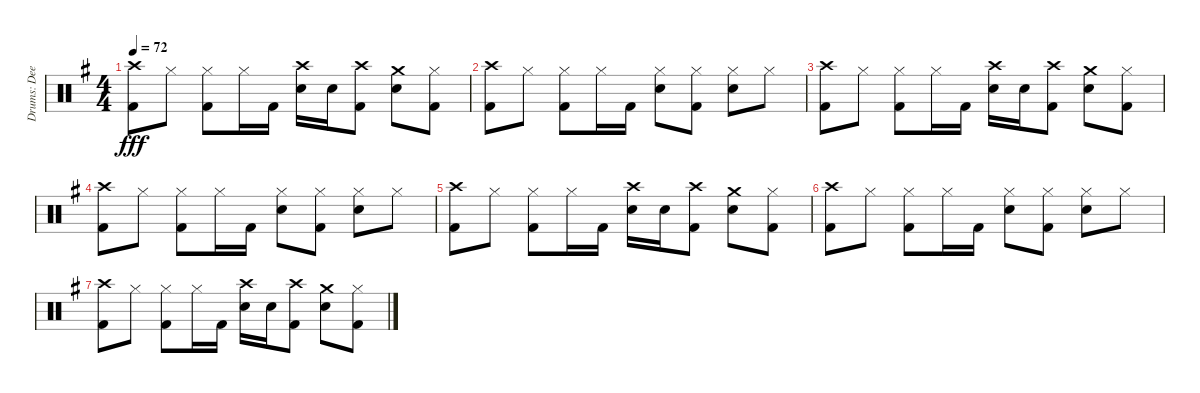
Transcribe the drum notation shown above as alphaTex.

\track ("Drums: Deen" "Drums: Dee") {instrument percussion}
\staff {score}
\articulation defaults
\ts (4 4)
\tempo 72
\clef neutral
\ks g
("Crash high (hit)" "Kick (hit) 2").8{dy fff} "Hi-Hat (closed)".8 ("Hi-Hat (closed)" "Kick (hit) 2").8 "Hi-Hat (closed)".16 "Kick (hit) 2".16 ("Crash high (hit)" "Electric Snare (hit)").16 "Electric Snare (hit)".16 ("Crash high (hit)" "Kick (hit) 2").8 ("Crash medium (hit)" "Electric Snare (hit)").8 ("Hi-Hat (closed)" "Kick (hit) 2").8 |
("Crash high (hit)" "Kick (hit) 2").8 "Hi-Hat (closed)".8 ("Hi-Hat (closed)" "Kick (hit) 2").8 "Hi-Hat (closed)".16 "Kick (hit) 2".16 ("Hi-Hat (closed)" "Electric Snare (hit)").8 ("Hi-Hat (closed)" "Kick (hit) 2").8 ("Hi-Hat (closed)" "Electric Snare (hit)").8 "Hi-Hat (closed)".8 |
("Crash high (hit)" "Kick (hit) 2").8 "Hi-Hat (closed)".8 ("Hi-Hat (closed)" "Kick (hit) 2").8 "Hi-Hat (closed)".16 "Kick (hit) 2".16 ("Crash high (hit)" "Electric Snare (hit)").16 "Electric Snare (hit)".16 ("Crash high (hit)" "Kick (hit) 2").8 ("Crash medium (hit)" "Electric Snare (hit)").8 ("Hi-Hat (closed)" "Kick (hit) 2").8 |
("Crash high (hit)" "Kick (hit) 2").8 "Hi-Hat (closed)".8 ("Hi-Hat (closed)" "Kick (hit) 2").8 "Hi-Hat (closed)".16 "Kick (hit) 2".16 ("Hi-Hat (closed)" "Electric Snare (hit)").8 ("Hi-Hat (closed)" "Kick (hit) 2").8 ("Hi-Hat (closed)" "Electric Snare (hit)").8 "Hi-Hat (closed)".8 |
("Crash high (hit)" "Kick (hit) 2").8 "Hi-Hat (closed)".8 ("Hi-Hat (closed)" "Kick (hit) 2").8 "Hi-Hat (closed)".16 "Kick (hit) 2".16 ("Crash high (hit)" "Electric Snare (hit)").16 "Electric Snare (hit)".16 ("Crash high (hit)" "Kick (hit) 2").8 ("Crash medium (hit)" "Electric Snare (hit)").8 ("Hi-Hat (closed)" "Kick (hit) 2").8 |
("Crash high (hit)" "Kick (hit) 2").8 "Hi-Hat (closed)".8 ("Hi-Hat (closed)" "Kick (hit) 2").8 "Hi-Hat (closed)".16 "Kick (hit) 2".16 ("Hi-Hat (closed)" "Electric Snare (hit)").8 ("Hi-Hat (closed)" "Kick (hit) 2").8 ("Hi-Hat (closed)" "Electric Snare (hit)").8 "Hi-Hat (closed)".8 |
("Crash high (hit)" "Kick (hit) 2").8 "Hi-Hat (closed)".8 ("Hi-Hat (closed)" "Kick (hit) 2").8 "Hi-Hat (closed)".16 "Kick (hit) 2".16 ("Crash high (hit)" "Electric Snare (hit)").16 "Electric Snare (hit)".16 ("Crash high (hit)" "Kick (hit) 2").8 ("Crash medium (hit)" "Electric Snare (hit)").8 ("Hi-Hat (closed)" "Kick (hit) 2").8
